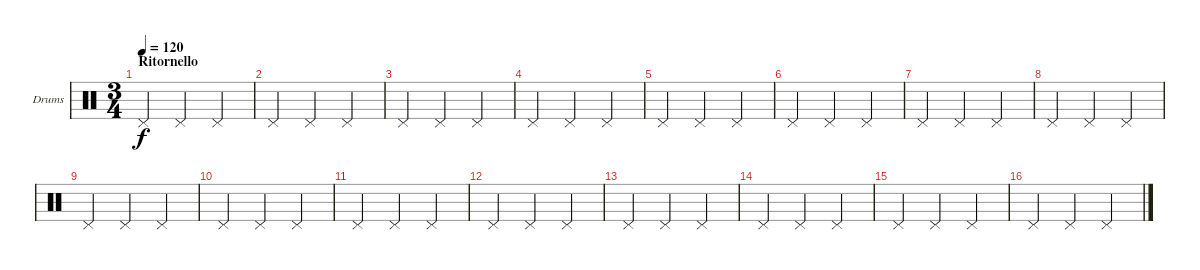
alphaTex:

\bracketExtendMode groupsimilarinstruments
\firstSystemTrackNameOrientation horizontal
\otherSystemsTrackNameOrientation horizontal
\track ("Drumkit" "Drums") {instrument percussion}
\staff {score}
\articulation defaults
\ts (3 4)
\section ("" "Ritornello")
\tempo 120
\clef neutral
\ks c "Pedal Hi-Hat (hit)".4{dy f} "Pedal Hi-Hat (hit)".4 "Pedal Hi-Hat (hit)".4
|
"Pedal Hi-Hat (hit)".4 "Pedal Hi-Hat (hit)".4 "Pedal Hi-Hat (hit)".4 |
"Pedal Hi-Hat (hit)".4 "Pedal Hi-Hat (hit)".4 "Pedal Hi-Hat (hit)".4 |
"Pedal Hi-Hat (hit)".4 "Pedal Hi-Hat (hit)".4 "Pedal Hi-Hat (hit)".4 |
"Pedal Hi-Hat (hit)".4 "Pedal Hi-Hat (hit)".4 "Pedal Hi-Hat (hit)".4 |
"Pedal Hi-Hat (hit)".4 "Pedal Hi-Hat (hit)".4 "Pedal Hi-Hat (hit)".4 |
"Pedal Hi-Hat (hit)".4 "Pedal Hi-Hat (hit)".4 "Pedal Hi-Hat (hit)".4 |
"Pedal Hi-Hat (hit)".4 "Pedal Hi-Hat (hit)".4 "Pedal Hi-Hat (hit)".4 |
"Pedal Hi-Hat (hit)".4 "Pedal Hi-Hat (hit)".4 "Pedal Hi-Hat (hit)".4 |
"Pedal Hi-Hat (hit)".4 "Pedal Hi-Hat (hit)".4 "Pedal Hi-Hat (hit)".4 |
"Pedal Hi-Hat (hit)".4 "Pedal Hi-Hat (hit)".4 "Pedal Hi-Hat (hit)".4 |
"Pedal Hi-Hat (hit)".4 "Pedal Hi-Hat (hit)".4 "Pedal Hi-Hat (hit)".4 |
"Pedal Hi-Hat (hit)".4 "Pedal Hi-Hat (hit)".4 "Pedal Hi-Hat (hit)".4 |
"Pedal Hi-Hat (hit)".4 "Pedal Hi-Hat (hit)".4 "Pedal Hi-Hat (hit)".4 |
"Pedal Hi-Hat (hit)".4 "Pedal Hi-Hat (hit)".4 "Pedal Hi-Hat (hit)".4 |
"Pedal Hi-Hat (hit)".4 "Pedal Hi-Hat (hit)".4 "Pedal Hi-Hat (hit)".4
